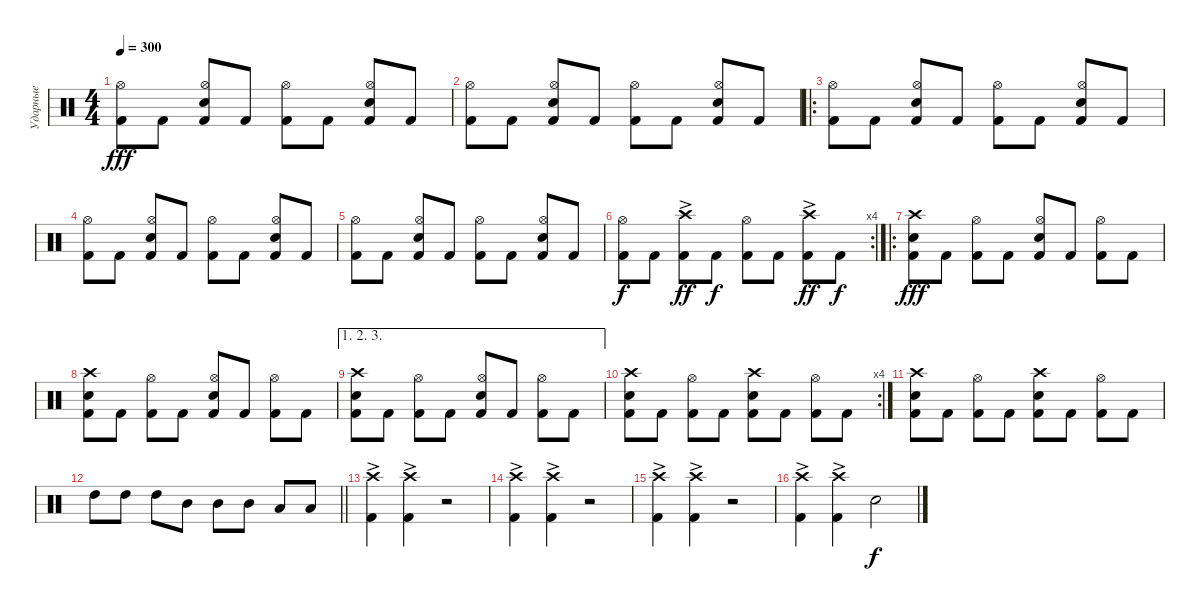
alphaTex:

\track ("Ударные" "Ударные") {instrument percussion}
\staff {score}
\articulation defaults
\ts (4 4)
\tempo 300
\clef neutral
\ks c
("Kick (hit) 2" "Hi-Hat (open)").8{dy fff} "Kick (hit) 2".8 ("Kick (hit) 2" "Snare (hit) 2" "Hi-Hat (open)").8 "Kick (hit) 2".8 ("Kick (hit) 2" "Hi-Hat (open)").8 "Kick (hit) 2".8 ("Kick (hit) 2" "Snare (hit) 2" "Hi-Hat (open)").8 "Kick (hit) 2".8 |
("Kick (hit) 2" "Hi-Hat (open)").8 "Kick (hit) 2".8 ("Kick (hit) 2" "Snare (hit) 2" "Hi-Hat (open)").8 "Kick (hit) 2".8 ("Kick (hit) 2" "Hi-Hat (open)").8 "Kick (hit) 2".8 ("Kick (hit) 2" "Snare (hit) 2" "Hi-Hat (open)").8 "Kick (hit) 2".8 |
\ro
("Kick (hit) 2" "Hi-Hat (open)").8 "Kick (hit) 2".8 ("Kick (hit) 2" "Snare (hit) 2" "Hi-Hat (open)").8 "Kick (hit) 2".8 ("Kick (hit) 2" "Hi-Hat (open)").8 "Kick (hit) 2".8 ("Kick (hit) 2" "Snare (hit) 2" "Hi-Hat (open)").8 "Kick (hit) 2".8 |
("Kick (hit) 2" "Hi-Hat (open)").8 "Kick (hit) 2".8 ("Kick (hit) 2" "Snare (hit) 2" "Hi-Hat (open)").8 "Kick (hit) 2".8 ("Kick (hit) 2" "Hi-Hat (open)").8 "Kick (hit) 2".8 ("Kick (hit) 2" "Snare (hit) 2" "Hi-Hat (open)").8 "Kick (hit) 2".8 |
("Kick (hit) 2" "Hi-Hat (open)").8 "Kick (hit) 2".8 ("Kick (hit) 2" "Snare (hit) 2" "Hi-Hat (open)").8 "Kick (hit) 2".8 ("Kick (hit) 2" "Hi-Hat (open)").8 "Kick (hit) 2".8 ("Kick (hit) 2" "Snare (hit) 2" "Hi-Hat (open)").8 "Kick (hit) 2".8 |
\rc 4
("Kick (hit) 2" "Hi-Hat (open)").8{dy f} "Kick (hit) 2".8 ("Kick (hit) 2" "Crash high (hit)"{ac}).8{dy ff} "Kick (hit) 2".8{dy f} ("Kick (hit) 2" "Hi-Hat (open)").8 "Kick (hit) 2".8 ("Kick (hit) 2" "Crash high (hit)"{ac}).8{dy ff} "Kick (hit) 2".8{dy f} |
\ro
("Kick (hit) 2" "Snare (hit) 2" "Crash high (hit)").8{dy fff} "Kick (hit) 2".8 ("Kick (hit) 2" "Hi-Hat (open)").8 "Kick (hit) 2".8 ("Kick (hit) 2" "Snare (hit) 2" "Hi-Hat (open)").8 "Kick (hit) 2".8 ("Kick (hit) 2" "Hi-Hat (open)").8 "Kick (hit) 2".8 |
("Kick (hit) 2" "Snare (hit) 2" "Crash high (hit)").8 "Kick (hit) 2".8 ("Kick (hit) 2" "Hi-Hat (open)").8 "Kick (hit) 2".8 ("Kick (hit) 2" "Snare (hit) 2" "Hi-Hat (open)").8 "Kick (hit) 2".8 ("Kick (hit) 2" "Hi-Hat (open)").8 "Kick (hit) 2".8 |
\ae (1 2 3)
("Kick (hit) 2" "Snare (hit) 2" "Crash high (hit)").8 "Kick (hit) 2".8 ("Kick (hit) 2" "Hi-Hat (open)").8 "Kick (hit) 2".8 ("Kick (hit) 2" "Snare (hit) 2" "Hi-Hat (open)").8 "Kick (hit) 2".8 ("Kick (hit) 2" "Hi-Hat (open)").8 "Kick (hit) 2".8 |
\rc 4
("Kick (hit) 2" "Snare (hit) 2" "Crash high (hit)").8 "Kick (hit) 2".8 ("Kick (hit) 2" "Hi-Hat (open)").8 "Kick (hit) 2".8 ("Kick (hit) 2" "Snare (hit) 2" "Crash high (hit)").8 "Kick (hit) 2".8 ("Kick (hit) 2" "Hi-Hat (open)").8 "Kick (hit) 2".8 |
("Kick (hit) 2" "Snare (hit) 2" "Crash high (hit)").8 "Kick (hit) 2".8 ("Kick (hit) 2" "Hi-Hat (open)").8 "Kick (hit) 2".8 ("Kick (hit) 2" "Snare (hit) 2" "Crash high (hit)").8 "Kick (hit) 2".8 ("Kick (hit) 2" "Hi-Hat (open)").8 "Kick (hit) 2".8 |
\barLineRight lightlight "High Tom (hit)".8 "High Tom (hit)".8 "High Tom (hit)".8 "Mid Tom (hit)".8 "Mid Tom (hit)".8 "Mid Tom (hit)".8 "Low Tom (hit)".8 "Low Tom (hit)".8
|
("Kick (hit) 2" "Crash high (hit)"{ac}).4 ("Kick (hit) 2" "Crash high (hit)"{ac}).4 r.2 |
("Kick (hit) 2" "Crash high (hit)"{ac}).4 ("Kick (hit) 2" "Crash high (hit)"{ac}).4 r.2 |
("Kick (hit) 2" "Crash high (hit)"{ac}).4 ("Kick (hit) 2" "Crash high (hit)"{ac}).4 r.2 |
("Kick (hit) 2" "Crash high (hit)"{ac}).4 ("Kick (hit) 2" "Crash high (hit)"{ac}).4 "Snare (hit) 2".2{dy f}
